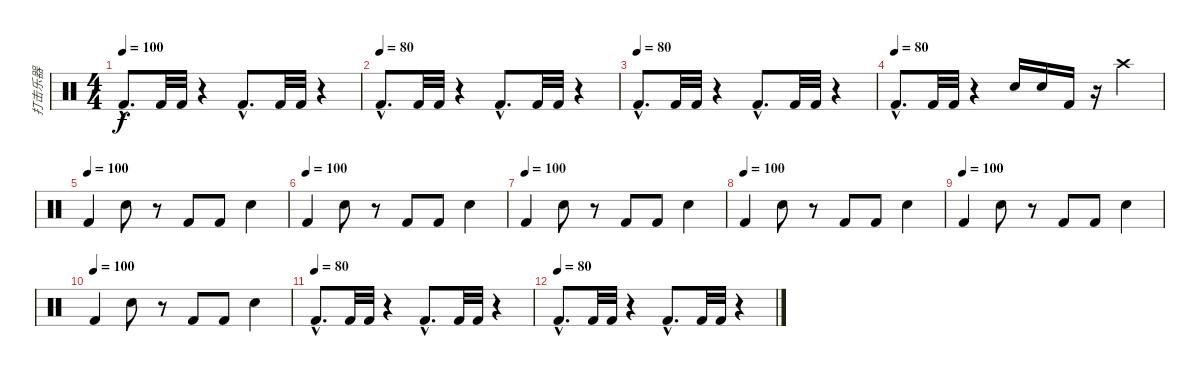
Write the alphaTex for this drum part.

\track ("打击乐器" "打击乐器") {instrument percussion}
\staff {score}
\articulation defaults
\ts (4 4)
\tempo 100
\tempo 80
\tempo 100
\clef neutral
\ks c "Kick (hit) 2"{hac}.8{d dy f} "Kick (hit) 2".32 "Kick (hit) 2".32
r.4 "Kick (hit) 2"{hac}.8{d} "Kick (hit) 2".32 "Kick (hit) 2".32 r.4 |
\tempo (80)
"Kick (hit) 2"{hac}.8{d} "Kick (hit) 2".32 "Kick (hit) 2".32 r.4 "Kick (hit) 2"{hac}.8{d} "Kick (hit) 2".32 "Kick (hit) 2".32 r.4 |
\tempo (80)
"Kick (hit) 2"{hac}.8{d} "Kick (hit) 2".32 "Kick (hit) 2".32 r.4 "Kick (hit) 2"{hac}.8{d} "Kick (hit) 2".32 "Kick (hit) 2".32 r.4 |
\tempo (80)
"Kick (hit) 2"{hac}.8{d} "Kick (hit) 2".32 "Kick (hit) 2".32 r.4 "Snare (hit) 2".16 "Snare (hit) 2".16 "Kick (hit) 2".16 r.16 "Crash high (hit)".4 |
\tempo 83
\tempo (100)
"Kick (hit) 2".4 "Snare (hit) 2".8 r.8 "Kick (hit) 2".8 "Kick (hit) 2".8 "Snare (hit) 2".4 |
\tempo (100)
"Kick (hit) 2".4 "Snare (hit) 2".8 r.8 "Kick (hit) 2".8 "Kick (hit) 2".8 "Snare (hit) 2".4 |
\tempo (100)
"Kick (hit) 2".4 "Snare (hit) 2".8 r.8 "Kick (hit) 2".8 "Kick (hit) 2".8 "Snare (hit) 2".4 |
\tempo (100)
"Kick (hit) 2".4 "Snare (hit) 2".8 r.8 "Kick (hit) 2".8 "Kick (hit) 2".8 "Snare (hit) 2".4 |
\tempo (100)
"Kick (hit) 2".4 "Snare (hit) 2".8 r.8 "Kick (hit) 2".8 "Kick (hit) 2".8 "Snare (hit) 2".4 |
\tempo (100)
"Kick (hit) 2".4 "Snare (hit) 2".8 r.8 "Kick (hit) 2".8 "Kick (hit) 2".8 "Snare (hit) 2".4 |
\tempo (80)
"Kick (hit) 2"{hac}.8{d} "Kick (hit) 2".32 "Kick (hit) 2".32 r.4 "Kick (hit) 2"{hac}.8{d} "Kick (hit) 2".32 "Kick (hit) 2".32 r.4 |
\tempo (80)
"Kick (hit) 2"{hac}.8{d} "Kick (hit) 2".32 "Kick (hit) 2".32 r.4 "Kick (hit) 2"{hac}.8{d} "Kick (hit) 2".32 "Kick (hit) 2".32 r.4
